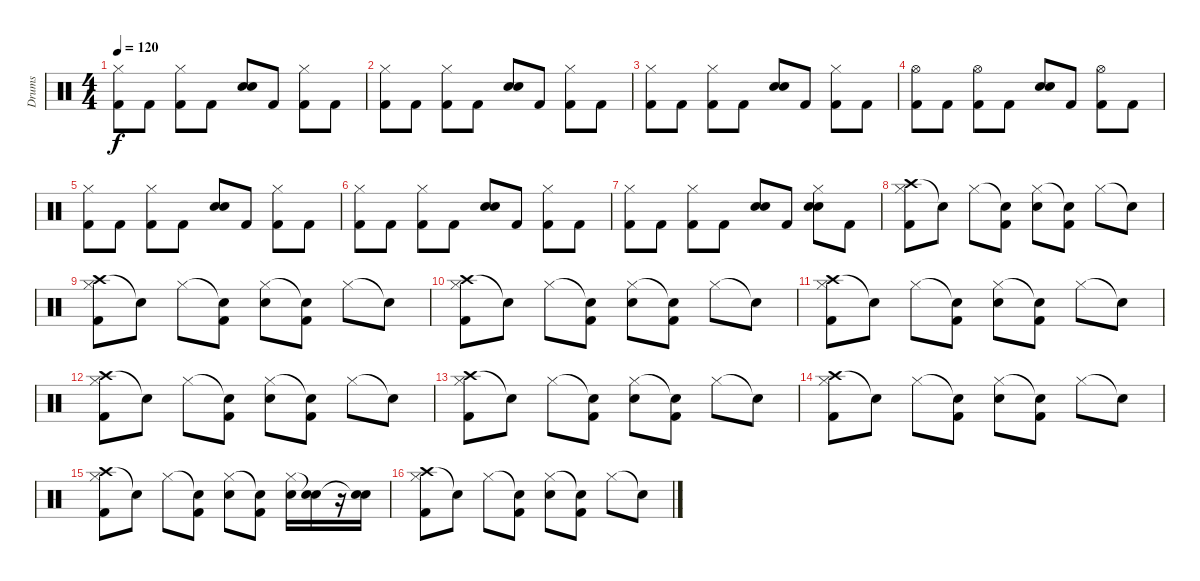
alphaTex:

\track ("Drums" "Drums") {instrument percussion}
\staff {score}
\articulation defaults
\ts (4 4)
\tempo 120
\clef neutral
\ks c
("Hi-Hat (closed)" "Kick (hit) 2").8{dy f} "Kick (hit) 2".8 ("Hi-Hat (closed)" "Kick (hit) 2").8 "Kick (hit) 2".8 ("Electric Snare (hit)" "Electric Snare (hit)").8 "Kick (hit) 2".8 ("Hi-Hat (closed)" "Kick (hit) 2").8 "Kick (hit) 2".8 |
("Hi-Hat (closed)" "Kick (hit) 2").8 "Kick (hit) 2".8 ("Hi-Hat (closed)" "Kick (hit) 2").8 "Kick (hit) 2".8 ("Electric Snare (hit)" "Electric Snare (hit)").8 "Kick (hit) 2".8 ("Hi-Hat (closed)" "Kick (hit) 2").8 "Kick (hit) 2".8 |
("Hi-Hat (closed)" "Kick (hit) 2").8 "Kick (hit) 2".8 ("Hi-Hat (closed)" "Kick (hit) 2").8 "Kick (hit) 2".8 ("Electric Snare (hit)" "Electric Snare (hit)").8 "Kick (hit) 2".8 ("Hi-Hat (closed)" "Kick (hit) 2").8 "Kick (hit) 2".8 |
("Hi-Hat (open)" "Kick (hit) 2").8 "Kick (hit) 2".8 ("Hi-Hat (open)" "Kick (hit) 2").8 "Kick (hit) 2".8 ("Electric Snare (hit)" "Electric Snare (hit)").8 "Kick (hit) 2".8 ("Hi-Hat (open)" "Kick (hit) 2").8 "Kick (hit) 2".8 |
("Hi-Hat (closed)" "Kick (hit) 2").8 "Kick (hit) 2".8 ("Hi-Hat (closed)" "Kick (hit) 2").8 "Kick (hit) 2".8 ("Electric Snare (hit)" "Electric Snare (hit)").8 "Kick (hit) 2".8 ("Hi-Hat (closed)" "Kick (hit) 2").8 "Kick (hit) 2".8 |
("Hi-Hat (closed)" "Kick (hit) 2").8 "Kick (hit) 2".8 ("Hi-Hat (closed)" "Kick (hit) 2").8 "Kick (hit) 2".8 ("Electric Snare (hit)" "Electric Snare (hit)").8 "Kick (hit) 2".8 ("Hi-Hat (closed)" "Kick (hit) 2").8 "Kick (hit) 2".8 |
("Hi-Hat (closed)" "Kick (hit) 2").8 "Kick (hit) 2".8 ("Hi-Hat (closed)" "Kick (hit) 2").8 "Kick (hit) 2".8 ("Electric Snare (hit)" "Electric Snare (hit)").8 "Kick (hit) 2".8 ("Hi-Hat (closed)" "Electric Snare (hit)" "Electric Snare (hit)").8 "Kick (hit) 2".8 |
("Crash high (hit)" "Hi-Hat (closed)" "Kick (hit) 2").8 "Snare (hit)"{t}.8 "Hi-Hat (closed)".8 ("Snare (hit)"{t} "Kick (hit) 2").8 ("Hi-Hat (closed)" "Electric Snare (hit)").8 ("Snare (hit)"{t} "Kick (hit) 2").8 "Hi-Hat (closed)".8 "Snare (hit)"{t}.8 |
("Crash high (hit)" "Hi-Hat (closed)" "Kick (hit) 2").8 "Snare (hit)"{t}.8 "Hi-Hat (closed)".8 ("Snare (hit)"{t} "Kick (hit) 2").8 ("Hi-Hat (closed)" "Electric Snare (hit)").8 ("Snare (hit)"{t} "Kick (hit) 2").8 "Hi-Hat (closed)".8 "Snare (hit)"{t}.8 |
("Crash high (hit)" "Hi-Hat (closed)" "Kick (hit) 2").8 "Snare (hit)"{t}.8 "Hi-Hat (closed)".8 ("Snare (hit)"{t} "Kick (hit) 2").8 ("Hi-Hat (closed)" "Electric Snare (hit)").8 ("Snare (hit)"{t} "Kick (hit) 2").8 "Hi-Hat (closed)".8 "Snare (hit)"{t}.8 |
("Crash high (hit)" "Hi-Hat (closed)" "Kick (hit) 2").8 "Snare (hit)"{t}.8 "Hi-Hat (closed)".8 ("Snare (hit)"{t} "Kick (hit) 2").8 ("Hi-Hat (closed)" "Electric Snare (hit)").8 ("Snare (hit)"{t} "Kick (hit) 2").8 "Hi-Hat (closed)".8 "Snare (hit)"{t}.8 |
("Crash high (hit)" "Hi-Hat (closed)" "Kick (hit) 2").8 "Snare (hit)"{t}.8 "Hi-Hat (closed)".8 ("Snare (hit)"{t} "Kick (hit) 2").8 ("Hi-Hat (closed)" "Electric Snare (hit)").8 ("Snare (hit)"{t} "Kick (hit) 2").8 "Hi-Hat (closed)".8 "Snare (hit)"{t}.8 |
("Crash high (hit)" "Hi-Hat (closed)" "Kick (hit) 2").8 "Snare (hit)"{t}.8 "Hi-Hat (closed)".8 ("Snare (hit)"{t} "Kick (hit) 2").8 ("Hi-Hat (closed)" "Electric Snare (hit)").8 ("Snare (hit)"{t} "Kick (hit) 2").8 "Hi-Hat (closed)".8 "Snare (hit)"{t}.8 |
("Crash high (hit)" "Hi-Hat (closed)" "Kick (hit) 2").8 "Snare (hit)"{t}.8 "Hi-Hat (closed)".8 ("Snare (hit)"{t} "Kick (hit) 2").8 ("Hi-Hat (closed)" "Electric Snare (hit)").8 ("Snare (hit)"{t} "Kick (hit) 2").8 "Hi-Hat (closed)".8 "Snare (hit)"{t}.8 |
("Crash high (hit)" "Hi-Hat (closed)" "Kick (hit) 2").8 "Snare (hit)"{t}.8 "Hi-Hat (closed)".8 ("Snare (hit)"{t} "Kick (hit) 2").8 ("Hi-Hat (closed)" "Electric Snare (hit)").8 ("Snare (hit)"{t} "Kick (hit) 2").8 ("Hi-Hat (closed)" "Electric Snare (hit)").16 ("Snare (hit)"{t} "Electric Snare (hit)").16 r.16 ("Snare (hit)"{t} "Electric Snare (hit)").16 |
("Crash high (hit)" "Hi-Hat (closed)" "Kick (hit) 2").8 "Snare (hit)"{t}.8 "Hi-Hat (closed)".8 ("Snare (hit)"{t} "Kick (hit) 2").8 ("Hi-Hat (closed)" "Electric Snare (hit)").8 ("Snare (hit)"{t} "Kick (hit) 2").8 "Hi-Hat (closed)".8 "Snare (hit)"{t}.8
